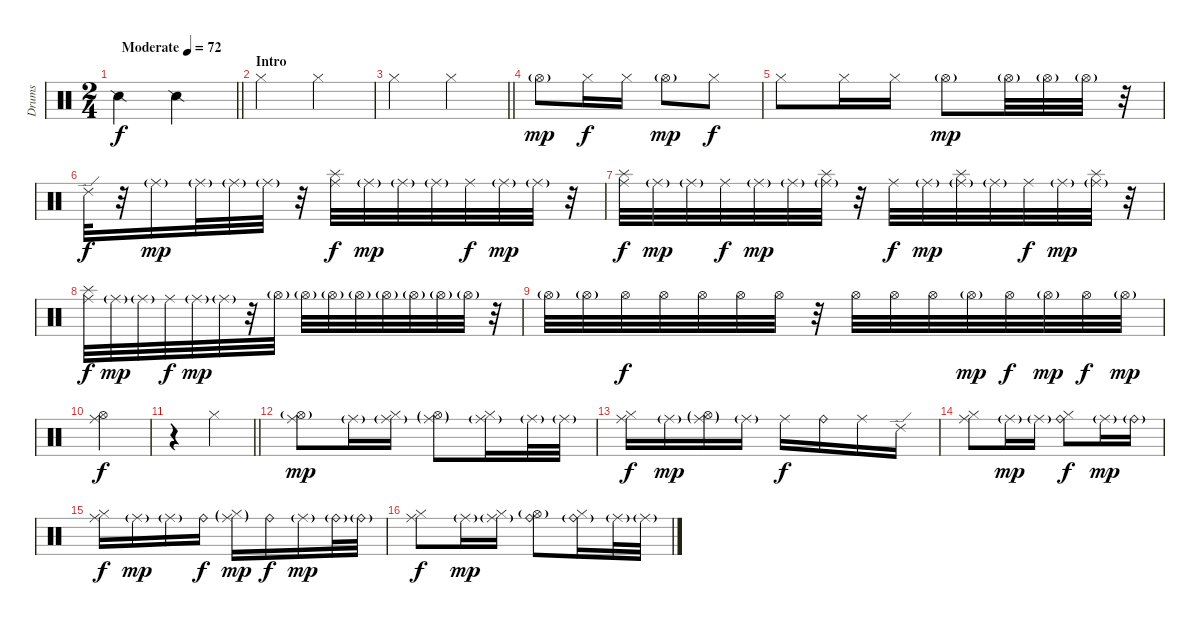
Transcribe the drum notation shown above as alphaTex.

\track ("Drums" "Drums") {instrument percussion}
\staff {score}
\articulation defaults
\ts (2 4)
\tempo (72 "Moderate")
\clef neutral
\barLineRight lightlight
\ks c "Snare (side stick) 2".4{dy f} "Snare (side stick) 2".4
|
\section ("" "Intro")
"Hi-Hat (closed)".4 "Hi-Hat (closed)".4 |
\barLineRight lightlight "Hi-Hat (closed)".4 "Hi-Hat (closed)".4
|
"Hi-Hat (open)"{g}.8{dy mp} "Hi-Hat (closed)".16{dy f} "Hi-Hat (closed)".16 "Hi-Hat (open)"{g}.8{dy mp} "Hi-Hat (closed)".8{dy f} |
"Hi-Hat (closed)".8 "Hi-Hat (closed)".16 "Hi-Hat (closed)".16 "Hi-Hat (open)"{g}.8{dy mp} "Hi-Hat (open)"{g}.32 "Hi-Hat (open)"{g}.32 "Hi-Hat (open)"{g}.32 r.32 |
"Ride (edge) 2".32{dy f} r.32 "Ride (middle)"{g}.16{dy mp} "Ride (middle)"{g}.32 "Ride (middle)"{g}.32 "Ride (middle)"{g}.32 r.32 ("Splash (hit)" "Ride (middle)").32{dy f} "Ride (middle)"{g}.32{dy mp} "Ride (middle)"{g}.32 "Ride (middle)"{g}.32 "Ride (middle)".32{dy f} "Ride (middle)"{g}.32{dy mp} "Ride (middle)"{g}.32 r.32 |
("Splash (hit)" "Ride (middle)").32{dy f} "Ride (middle)"{g}.32{dy mp} "Ride (middle)"{g}.32 "Ride (middle)".32{dy f} "Ride (middle)"{g}.32{dy mp} "Ride (middle)"{g}.32 ("Splash (hit)" "Ride (middle)"{g}).32 r.32 "Ride (middle)".32{dy f} "Ride (middle)"{g}.32{dy mp} ("Splash (hit)" "Ride (middle)"{g}).32 "Ride (middle)"{g}.32 "Ride (middle)".32{dy f} "Ride (middle)"{g}.32{dy mp} ("Splash (hit)" "Ride (middle)"{g}).32 r.32 |
("Splash (hit)" "Ride (middle)").32{dy f} "Ride (middle)"{g}.32{dy mp} "Ride (middle)"{g}.32 "Ride (middle)".32{dy f} "Ride (middle)"{g}.32{dy mp} "Ride (middle)"{g}.32 r.32 "Hi-Hat (open)"{g}.32 "Hi-Hat (open)"{g}.32 "Hi-Hat (open)"{g}.32 "Hi-Hat (open)"{g}.32 "Hi-Hat (open)"{g}.32 "Hi-Hat (open)"{g}.32 "Hi-Hat (open)"{g}.32 "Hi-Hat (open)"{g}.32 r.32 |
"Hi-Hat (open)"{g}.32 "Hi-Hat (open)"{g}.32 "Hi-Hat (open)".32{dy f} "Hi-Hat (open)".32 "Hi-Hat (open)".32 "Hi-Hat (open)".32 "Hi-Hat (open)".32 r.32 "Hi-Hat (open)".32 "Hi-Hat (open)".32 "Hi-Hat (open)".32 "Hi-Hat (open)"{g}.32{dy mp} "Hi-Hat (open)".32{dy f} "Hi-Hat (open)"{g}.32{dy mp} "Hi-Hat (open)".32{dy f} "Hi-Hat (open)"{g}.32{dy mp} |
("Ride (middle)" "Hi-Hat (open)").2{dy f} |
\barLineRight lightlight
r.4 "Hi-Hat (closed)".4 |
("Ride (middle)" "Hi-Hat (open)"{g}).8{dy mp} "Ride (middle)"{g}.16 ("Ride (middle)"{g} "Hi-Hat (closed)").16 ("Ride (middle)"{g} "Hi-Hat (open)"{g}).8 ("Ride (middle)"{g} "Hi-Hat (closed)").16 "Ride (middle)"{g}.32 "Ride (middle)"{g}.32 |
("Ride (middle)" "Hi-Hat (closed)").16{dy f} "Ride (middle)"{g}.16{dy mp} ("Ride (middle)"{g} "Hi-Hat (open)"{g}).16 "Ride (middle)"{g}.16 "Ride (middle)".16{dy f} "Ride (bell)".16 "Ride (middle)".16 "Ride (edge) 2".16 |
("Ride (middle)" "Hi-Hat (closed)").8 "Ride (middle)"{g}.16{dy mp} "Ride (middle)"{g}.16 ("Ride (bell)" "Hi-Hat (closed)").8{dy f} "Ride (middle)"{g}.16{dy mp} "Ride (bell)"{g}.16 |
("Ride (middle)" "Hi-Hat (closed)").16{dy f} "Ride (middle)"{g}.16{dy mp} "Ride (middle)"{g}.16 "Ride (bell)".16{dy f} ("Ride (middle)"{g} "Hi-Hat (closed)"{g}).16{dy mp} "Ride (bell)".16{dy f} "Ride (middle)"{g}.16{dy mp} "Ride (bell)"{g}.32 "Ride (bell)"{g}.32 |
("Ride (middle)" "Hi-Hat (closed)").8{dy f} "Ride (middle)"{g}.16{dy mp} ("Ride (middle)"{g} "Hi-Hat (closed)").16 ("Ride (bell)" "Hi-Hat (open)"{g}).8 ("Ride (bell)"{g} "Hi-Hat (closed)").16 "Ride (middle)"{g}.32 "Ride (middle)"{g}.32
